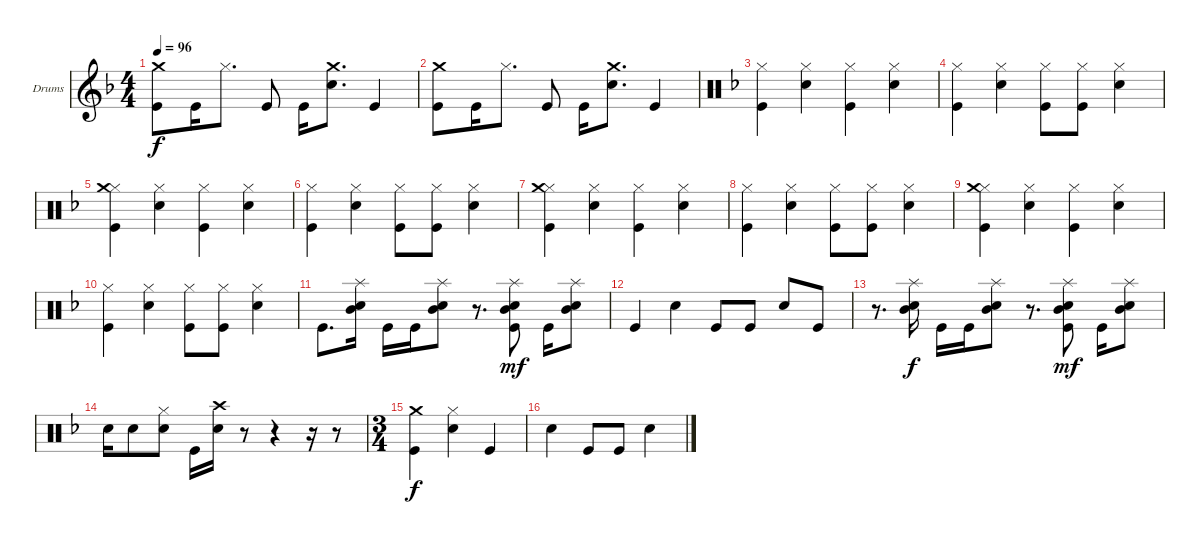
\defaultSystemsLayout 4
\bracketExtendMode groupsimilarinstruments
\firstSystemTrackNameOrientation horizontal
\otherSystemsTrackNameOrientation horizontal
\track ("Drumkit" "Drums") {instrument percussion}
\staff {score}
\articulation defaults
\ts (4 4)
\tempo 96
\clef g2
\scale
0.333333
\ks dminor
("Kick (hit)" "Crash medium (hit)").8{dy f} "Kick (hit)".16 "Hi-Hat (closed)".8{d} "Kick (hit)".8 "Kick (hit)".16 ("Snare (hit) 2" "Crash medium (hit)").8{d} "Kick (hit)".4 |
\scale
0.333333 ("Kick (hit)" "Crash medium (hit)").8 "Kick (hit)".16 "Hi-Hat (closed)".8{d} "Kick (hit)".8 "Kick (hit)".16 ("Snare (hit) 2" "Crash medium (hit)").8{d} "Kick (hit)".4 |
\clef neutral
\scale
0.333333 ("Kick (hit)" "Hi-Hat (closed)").4 ("Snare (hit) 2" "Hi-Hat (closed)").4 ("Kick (hit)" "Hi-Hat (closed)").4 ("Hi-Hat (closed)" "Snare (hit) 2").4 |
\scale
0.333333 ("Kick (hit)" "Hi-Hat (closed)").4 ("Snare (hit) 2" "Hi-Hat (closed)").4 ("Kick (hit)" "Hi-Hat (closed)").8 ("Hi-Hat (closed)" "Kick (hit)").8 ("Snare (hit) 2" "Hi-Hat (closed)").4 |
\scale
0.333333 ("Kick (hit)" "Hi-Hat (closed)" "Crash medium (hit)").4 ("Snare (hit) 2" "Hi-Hat (closed)").4 ("Kick (hit)" "Hi-Hat (closed)").4 ("Hi-Hat (closed)" "Snare (hit) 2").4 |
\scale
0.333333 ("Kick (hit)" "Hi-Hat (closed)").4 ("Snare (hit) 2" "Hi-Hat (closed)").4 ("Kick (hit)" "Hi-Hat (closed)").8 ("Hi-Hat (closed)" "Kick (hit)").8 ("Snare (hit) 2" "Hi-Hat (closed)").4 |
\scale
0.333333 ("Kick (hit)" "Hi-Hat (closed)" "Crash medium (hit)").4 ("Snare (hit) 2" "Hi-Hat (closed)").4 ("Kick (hit)" "Hi-Hat (closed)").4 ("Hi-Hat (closed)" "Snare (hit) 2").4 |
\scale
0.333333 ("Kick (hit)" "Hi-Hat (closed)").4 ("Snare (hit) 2" "Hi-Hat (closed)").4 ("Kick (hit)" "Hi-Hat (closed)").8 ("Hi-Hat (closed)" "Kick (hit)").8 ("Snare (hit) 2" "Hi-Hat (closed)").4 |
\scale
0.333333 ("Kick (hit)" "Hi-Hat (closed)" "Crash medium (hit)").4 ("Snare (hit) 2" "Hi-Hat (closed)").4 ("Kick (hit)" "Hi-Hat (closed)").4 ("Hi-Hat (closed)" "Snare (hit) 2").4 |
\scale
0.333333 ("Kick (hit)" "Hi-Hat (closed)").4 ("Snare (hit) 2" "Hi-Hat (closed)").4 ("Kick (hit)" "Hi-Hat (closed)").8 ("Hi-Hat (closed)" "Kick (hit)").8 ("Snare (hit) 2" "Hi-Hat (closed)").4 |
\scale
0.333333 "Kick (hit)".8{d} ("Mid Tom (hit)" "Snare (hit) 2" "Splash (hit)").16 "Kick (hit)".16 "Kick (hit)".16 ("Mid Tom (hit)" "Snare (hit) 2" "Splash (hit)").8 r.8{d} ("Splash (hit)" "Snare (hit) 2" "Mid Tom (hit)" "Kick (hit)").8{dy mf} "Kick (hit)".16 ("Mid Tom (hit)" "Snare (hit) 2" "Splash (hit)").8 |
\scale
0.333333 "Kick (hit)".4 "Snare (hit) 2".4 "Kick (hit)".8 "Kick (hit)".8 "Snare (hit) 2".8 "Kick (hit)".8 |
\scale
0.333333 r.8{d} ("Mid Tom (hit)" "Snare (hit) 2" "Splash (hit)").16{dy f} "Kick (hit)".16 "Kick (hit)".16 ("Mid Tom (hit)" "Snare (hit) 2" "Splash (hit)").8 r.8{d} ("Splash (hit)" "Snare (hit) 2" "Mid Tom (hit)" "Kick (hit)").8{dy mf} "Kick (hit)".16 ("Mid Tom (hit)" "Snare (hit) 2" "Splash (hit)").8 |
\scale
0.333333 "Snare (hit) 2".16 "Snare (hit) 2".8 ("Snare (hit) 2" "Hi-Hat (closed)").8 "Kick (hit)".16 ("Snare (hit) 2" "Crash high (hit)").16 r.8 r.4 r.16 r.8 |
\ts (3 4)
\scale
0.333333 ("Kick (hit)" "Crash medium (hit)").4{dy f} ("Snare (hit) 2" "Hi-Hat (closed)").4 "Kick (hit)".4 |
\scale
0.333333 "Snare (hit) 2".4 "Kick (hit)".8 "Kick (hit)".8 "Snare (hit) 2".4
